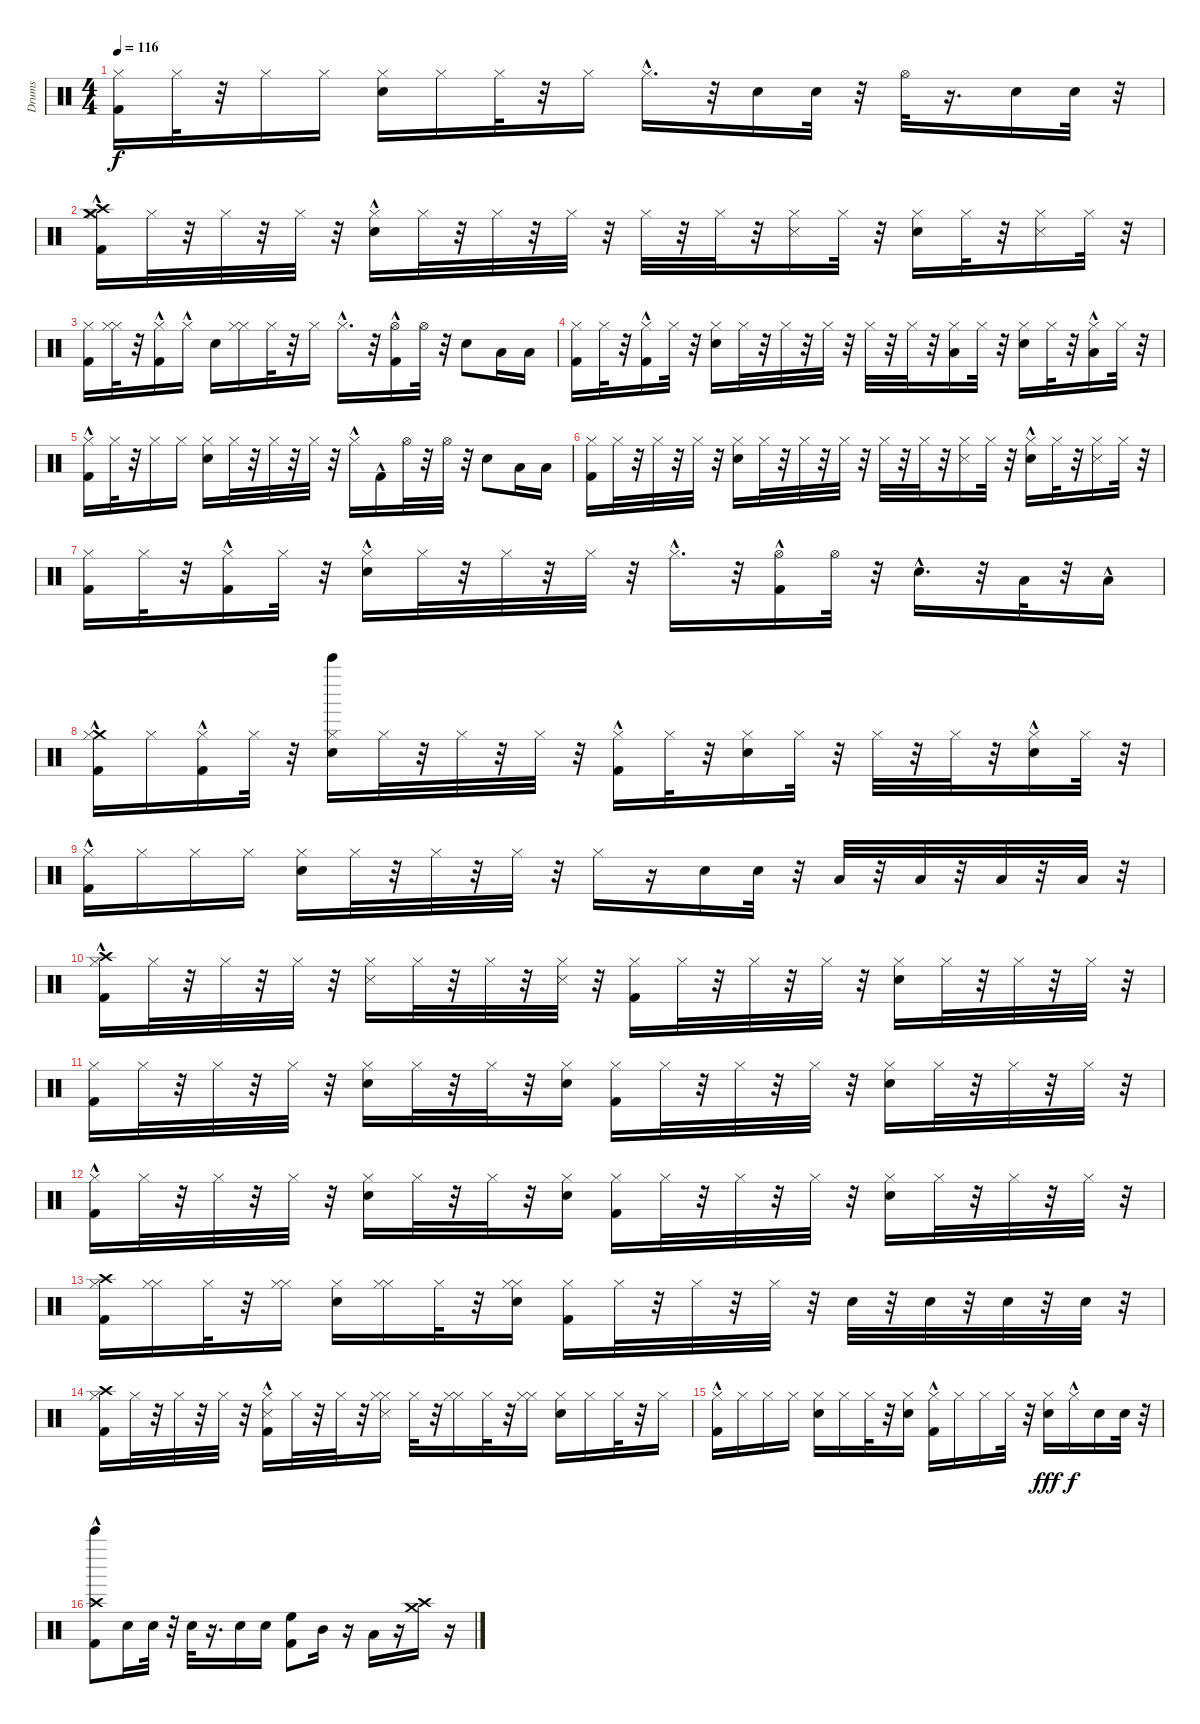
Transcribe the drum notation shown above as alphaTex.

\track ("Drums" "Drums") {instrument percussion}
\staff {score}
\articulation defaults
\ts (4 4)
\tempo 116
\clef neutral
\ks c
("Hi-Hat (closed)" "Kick (hit) 2").16{dy f} "Hi-Hat (closed)".32 r.32 "Hi-Hat (closed)".16 "Hi-Hat (closed)".16 ("Snare (hit) 2" "Hi-Hat (closed)").16 "Hi-Hat (closed)".16 "Hi-Hat (closed)".32 r.32 "Hi-Hat (closed)".16 "Hi-Hat (closed)"{hac}.16{d} r.32 "Snare (hit) 2".16 "Snare (hit) 2".32 r.32 "Hi-Hat (open)".32 r.16{d} "Snare (hit) 2".16 "Snare (hit) 2".32 r.32 |
("Kick (hit) 2"{hac} "Crash high (hit)"{hac} "Hi-Hat (closed)" "Crash medium (hit)"{hac}).16 "Hi-Hat (closed)".32 r.32 "Hi-Hat (closed)".32 r.32 "Hi-Hat (closed)".32 r.32 ("Snare (hit) 2"{hac} "Hi-Hat (closed)").16 "Hi-Hat (closed)".32 r.32 "Hi-Hat (closed)".32 r.32 "Hi-Hat (closed)".32 r.32 "Hi-Hat (closed)".32 r.32 "Hi-Hat (closed)".32 r.32 ("Snare (side stick) 3" "Hi-Hat (closed)").16 "Hi-Hat (closed)".32 r.32 ("Snare (hit) 2" "Hi-Hat (closed)").16 "Hi-Hat (closed)".32 r.32 ("Hi-Hat (closed)" "Snare (side stick) 3").16 "Hi-Hat (closed)".32 r.32 |
("Hi-Hat (closed)" "Kick (hit) 2").16 ("Hi-Hat (closed)" "Hi-Hat (closed)").32 r.32 ("Kick (hit) 2"{hac} "Hi-Hat (closed)").16 "Hi-Hat (closed)"{hac}.16 "Snare (hit) 2".16 ("Hi-Hat (closed)" "Hi-Hat (closed)").16 "Hi-Hat (closed)".32 r.32 "Hi-Hat (closed)".16 "Hi-Hat (closed)"{hac}.16{d} r.32 ("Hi-Hat (open)" "Kick (hit) 2"{hac}).16 "Hi-Hat (open)".32 r.32 "Snare (hit) 2".8 "Low Tom (hit)".16 "Low Tom (hit)".16 |
("Kick (hit) 2" "Hi-Hat (closed)").16 "Hi-Hat (closed)".32 r.32 ("Hi-Hat (closed)" "Kick (hit) 2"{hac}).16 "Hi-Hat (closed)".32 r.32 ("Snare (hit) 2" "Hi-Hat (closed)").16 "Hi-Hat (closed)".32 r.32 "Hi-Hat (closed)".32 r.32 "Hi-Hat (closed)".32 r.32 "Hi-Hat (closed)".32 r.32 "Hi-Hat (closed)".32 r.32 ("Low Tom (hit)" "Hi-Hat (closed)").16 "Hi-Hat (closed)".32 r.32 ("Hi-Hat (closed)" "Snare (hit) 2").16 "Hi-Hat (closed)".32 r.32 ("Hi-Hat (closed)" "Low Tom (hit)"{hac}).16 "Hi-Hat (closed)".32 r.32 |
("Kick (hit) 2"{hac} "Hi-Hat (closed)").16 "Hi-Hat (closed)".32 r.32 "Hi-Hat (closed)".16 "Hi-Hat (closed)".16 ("Hi-Hat (closed)" "Snare (hit) 2").16 "Hi-Hat (closed)".32 r.32 "Hi-Hat (closed)".32 r.32 "Hi-Hat (closed)".32 r.32 "Hi-Hat (closed)"{hac}.16 "Kick (hit) 2"{hac}.16 "Hi-Hat (open)".32 r.32 "Hi-Hat (open)".32 r.32 "Snare (hit) 2".8 "Low Tom (hit)".16 "Low Tom (hit)".16 |
("Kick (hit) 2" "Hi-Hat (closed)").16 "Hi-Hat (closed)".32 r.32 "Hi-Hat (closed)".32 r.32 "Hi-Hat (closed)".32 r.32 ("Snare (hit) 2" "Hi-Hat (closed)").16 "Hi-Hat (closed)".32 r.32 "Hi-Hat (closed)".32 r.32 "Hi-Hat (closed)".32 r.32 "Hi-Hat (closed)".32 r.32 "Hi-Hat (closed)".32 r.32 ("Snare (side stick) 3" "Hi-Hat (closed)").16 "Hi-Hat (closed)".32 r.32 ("Hi-Hat (closed)" "Snare (hit) 2"{hac}).16 "Hi-Hat (closed)".32 r.32 ("Hi-Hat (closed)" "Snare (side stick) 3").16 "Hi-Hat (closed)".32 r.32 |
("Hi-Hat (closed)" "Kick (hit) 2").16 "Hi-Hat (closed)".32 r.32 ("Kick (hit) 2"{hac} "Hi-Hat (closed)").16 "Hi-Hat (closed)".32 r.32 ("Snare (hit) 2"{hac} "Hi-Hat (closed)").16 "Hi-Hat (closed)".32 r.32 "Hi-Hat (closed)".32 r.32 "Hi-Hat (closed)".32 r.32 "Hi-Hat (closed)"{hac}.16{d} r.32 ("Hi-Hat (open)" "Kick (hit) 2"{hac}).16 "Hi-Hat (open)".32 r.32 "Snare (hit) 2"{hac}.16{d} r.32 "Low Tom (hit)".32 r.32 "Low Tom (hit)"{hac}.16 |
("Crash medium (hit)"{hac} "Hi-Hat (closed)" "Kick (hit) 2"{hac}).16 "Hi-Hat (closed)".16 ("Hi-Hat (closed)" "Kick (hit) 2"{hac}).16 "Hi-Hat (closed)".32 r.32 ("Hi-Hat (closed)" "Snare (hit) 2" "Bell Tree (hit)").16 "Hi-Hat (closed)".32 r.32 "Hi-Hat (closed)".32 r.32 "Hi-Hat (closed)".32 r.32 ("Hi-Hat (closed)" "Kick (hit) 2"{hac}).16 "Hi-Hat (closed)".32 r.32 ("Hi-Hat (closed)" "Snare (hit) 2").16 "Hi-Hat (closed)".32 r.32 "Hi-Hat (closed)".32 r.32 "Hi-Hat (closed)".32 r.32 ("Hi-Hat (closed)" "Snare (hit) 2"{hac}).16 "Hi-Hat (closed)".32 r.32 |
("Kick (hit) 2"{hac} "Hi-Hat (closed)").16 "Hi-Hat (closed)".16 "Hi-Hat (closed)".16 "Hi-Hat (closed)".16 ("Snare (hit) 2" "Hi-Hat (closed)").16 "Hi-Hat (closed)".32 r.32 "Hi-Hat (closed)".32 r.32 "Hi-Hat (closed)".32 r.32 "Hi-Hat (closed)".16 r.16 "Snare (hit) 2".16 "Snare (hit) 2".32 r.32 "Low Tom (hit)".32 r.32 "Low Tom (hit)".32 r.32 "Low Floor Tom (hit)".32 r.32 "Low Floor Tom (hit)".32 r.32 |
("Kick (hit) 2"{hac} "Hi-Hat (closed)" "Crash high (hit)").16 "Hi-Hat (closed)".32 r.32 "Hi-Hat (closed)".32 r.32 "Hi-Hat (closed)".32 r.32 ("Hi-Hat (closed)" "Snare (side stick) 3").16 "Hi-Hat (closed)".32 r.32 "Hi-Hat (closed)".32 r.32 ("Snare (side stick) 3" "Hi-Hat (closed)").32 r.32 ("Kick (hit) 2" "Hi-Hat (closed)").16 "Hi-Hat (closed)".32 r.32 "Hi-Hat (closed)".32 r.32 "Hi-Hat (closed)".32 r.32 ("Snare (hit) 2" "Hi-Hat (closed)").16 "Hi-Hat (closed)".32 r.32 "Hi-Hat (closed)".32 r.32 "Hi-Hat (closed)".32 r.32 |
("Hi-Hat (closed)" "Kick (hit) 2").16 "Hi-Hat (closed)".32 r.32 "Hi-Hat (closed)".32 r.32 "Hi-Hat (closed)".32 r.32 ("Snare (hit) 2" "Hi-Hat (closed)").16 "Hi-Hat (closed)".32 r.32 "Hi-Hat (closed)".32 r.32 ("Hi-Hat (closed)" "Snare (hit) 2").16 ("Hi-Hat (closed)" "Kick (hit) 2").16 "Hi-Hat (closed)".32 r.32 "Hi-Hat (closed)".32 r.32 "Hi-Hat (closed)".32 r.32 ("Hi-Hat (closed)" "Snare (hit) 2").16 "Hi-Hat (closed)".32 r.32 "Hi-Hat (closed)".32 r.32 "Hi-Hat (closed)".32 r.32 |
("Kick (hit) 2"{hac} "Hi-Hat (closed)").16 "Hi-Hat (closed)".32 r.32 "Hi-Hat (closed)".32 r.32 "Hi-Hat (closed)".32 r.32 ("Hi-Hat (closed)" "Snare (hit) 2").16 "Hi-Hat (closed)".32 r.32 "Hi-Hat (closed)".32 r.32 ("Hi-Hat (closed)" "Snare (hit) 2").16 ("Kick (hit) 2" "Hi-Hat (closed)").16 "Hi-Hat (closed)".32 r.32 "Hi-Hat (closed)".32 r.32 "Hi-Hat (closed)".32 r.32 ("Snare (hit) 2" "Hi-Hat (closed)").16 "Hi-Hat (closed)".32 r.32 "Hi-Hat (closed)".32 r.32 "Hi-Hat (closed)".32 r.32 |
("Kick (hit) 2" "Hi-Hat (closed)" "Crash high (hit)").16 ("Hi-Hat (closed)" "Hi-Hat (closed)").16 "Hi-Hat (closed)".32 r.32 ("Hi-Hat (closed)" "Hi-Hat (closed)").16 ("Hi-Hat (closed)" "Snare (hit) 2").16 ("Hi-Hat (closed)" "Hi-Hat (closed)").16 "Hi-Hat (closed)".32 r.32 ("Hi-Hat (closed)" "Snare (hit) 2" "Hi-Hat (closed)").16 ("Kick (hit) 2" "Hi-Hat (closed)").16 "Hi-Hat (closed)".32 r.32 "Hi-Hat (closed)".32 r.32 "Hi-Hat (closed)".32 r.32 "Snare (hit) 2".32 r.32 "Snare (hit) 2".32 r.32 "Snare (hit) 2".32 r.32 "Snare (hit) 2".32 r.32 |
("Crash high (hit)" "Kick (hit) 2" "Hi-Hat (closed)").16 "Hi-Hat (closed)".32 r.32 "Hi-Hat (closed)".32 r.32 "Hi-Hat (closed)".32 r.32 ("Snare (side stick) 3"{hac} "Kick (hit) 2"{hac} "Hi-Hat (closed)").16 "Hi-Hat (closed)".32 r.32 "Hi-Hat (closed)".32 r.32 ("Hi-Hat (closed)" "Hi-Hat (closed)" "Snare (side stick) 3").16 "Hi-Hat (closed)".32 r.32 ("Hi-Hat (closed)" "Hi-Hat (closed)").16 "Hi-Hat (closed)".32 r.32 ("Hi-Hat (closed)" "Hi-Hat (closed)").16 ("Hi-Hat (closed)" "Snare (hit) 2").16 "Hi-Hat (closed)".16 "Hi-Hat (closed)".32 r.32 "Hi-Hat (closed)".16 |
("Kick (hit) 2"{hac} "Hi-Hat (closed)").16 "Hi-Hat (closed)".16 "Hi-Hat (closed)".16 "Hi-Hat (closed)".16 ("Snare (hit) 2" "Hi-Hat (closed)").16 "Hi-Hat (closed)".16 "Hi-Hat (closed)".32 r.32 ("Snare (hit) 2" "Hi-Hat (closed)").16 ("Kick (hit) 2"{hac} "Hi-Hat (closed)").16 "Hi-Hat (closed)".16 "Hi-Hat (closed)".16 "Hi-Hat (closed)".32 r.32 ("Hi-Hat (closed)" "Snare (hit) 2").16{dy fff} "Hi-Hat (closed)"{hac}.16{dy f} "Snare (hit) 2".16 "Snare (hit) 2".32 r.32 |
("Bell Tree (hit)"{hac} "Crash high (hit)" "Kick (hit) 2").8 "Snare (hit) 2".16 "Snare (hit) 2".32 r.32 "Snare (hit) 2".32 r.16{d} "Snare (hit) 2".16 "Snare (hit) 2".16 ("High Floor Tom (hit)" "Kick (hit) 2").8 "Mid Tom (hit)".16 r.16 "Low Floor Tom (hit)".16 r.16 ("Crash medium (hit)" "Crash high (hit)").16 r.16
